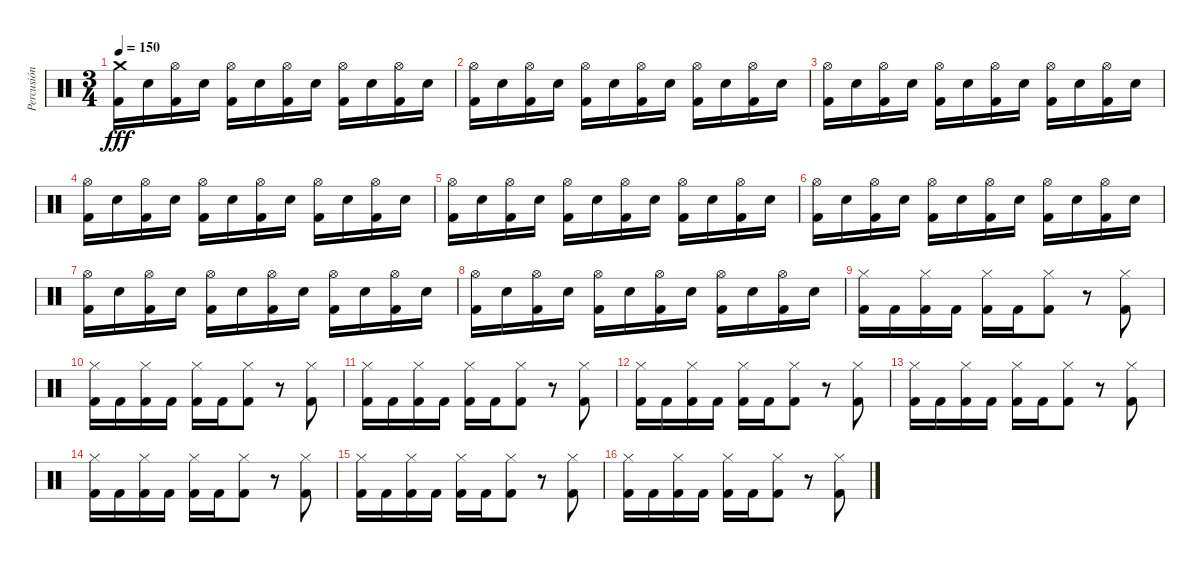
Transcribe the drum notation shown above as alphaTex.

\track ("Percusión" "Percusión") {instrument percussion}
\staff {score}
\articulation defaults
\ts (3 4)
\tempo 150
\clef neutral
\ks c
("Crash medium (hit)" "Kick (hit) 2").16{dy fff} "Snare (hit) 2".16 ("Hi-Hat (open)" "Kick (hit) 2").16 "Snare (hit) 2".16 ("Hi-Hat (open)" "Kick (hit) 2").16 "Snare (hit) 2".16 ("Hi-Hat (open)" "Kick (hit) 2").16 "Snare (hit) 2".16 ("Hi-Hat (open)" "Kick (hit) 2").16 "Snare (hit) 2".16 ("Hi-Hat (open)" "Kick (hit) 2").16 "Snare (hit) 2".16 |
("Hi-Hat (open)" "Kick (hit) 2").16 "Snare (hit) 2".16 ("Hi-Hat (open)" "Kick (hit) 2").16 "Snare (hit) 2".16 ("Hi-Hat (open)" "Kick (hit) 2").16 "Snare (hit) 2".16 ("Hi-Hat (open)" "Kick (hit) 2").16 "Snare (hit) 2".16 ("Hi-Hat (open)" "Kick (hit) 2").16 "Snare (hit) 2".16 ("Hi-Hat (open)" "Kick (hit) 2").16 "Snare (hit) 2".16 |
("Hi-Hat (open)" "Kick (hit) 2").16 "Snare (hit) 2".16 ("Hi-Hat (open)" "Kick (hit) 2").16 "Snare (hit) 2".16 ("Hi-Hat (open)" "Kick (hit) 2").16 "Snare (hit) 2".16 ("Hi-Hat (open)" "Kick (hit) 2").16 "Snare (hit) 2".16 ("Hi-Hat (open)" "Kick (hit) 2").16 "Snare (hit) 2".16 ("Hi-Hat (open)" "Kick (hit) 2").16 "Snare (hit) 2".16 |
("Hi-Hat (open)" "Kick (hit) 2").16 "Snare (hit) 2".16 ("Hi-Hat (open)" "Kick (hit) 2").16 "Snare (hit) 2".16 ("Hi-Hat (open)" "Kick (hit) 2").16 "Snare (hit) 2".16 ("Hi-Hat (open)" "Kick (hit) 2").16 "Snare (hit) 2".16 ("Hi-Hat (open)" "Kick (hit) 2").16 "Snare (hit) 2".16 ("Hi-Hat (open)" "Kick (hit) 2").16 "Snare (hit) 2".16 |
("Hi-Hat (open)" "Kick (hit) 2").16 "Snare (hit) 2".16 ("Hi-Hat (open)" "Kick (hit) 2").16 "Snare (hit) 2".16 ("Hi-Hat (open)" "Kick (hit) 2").16 "Snare (hit) 2".16 ("Hi-Hat (open)" "Kick (hit) 2").16 "Snare (hit) 2".16 ("Hi-Hat (open)" "Kick (hit) 2").16 "Snare (hit) 2".16 ("Hi-Hat (open)" "Kick (hit) 2").16 "Snare (hit) 2".16 |
("Hi-Hat (open)" "Kick (hit) 2").16 "Snare (hit) 2".16 ("Hi-Hat (open)" "Kick (hit) 2").16 "Snare (hit) 2".16 ("Hi-Hat (open)" "Kick (hit) 2").16 "Snare (hit) 2".16 ("Hi-Hat (open)" "Kick (hit) 2").16 "Snare (hit) 2".16 ("Hi-Hat (open)" "Kick (hit) 2").16 "Snare (hit) 2".16 ("Hi-Hat (open)" "Kick (hit) 2").16 "Snare (hit) 2".16 |
("Hi-Hat (open)" "Kick (hit) 2").16 "Snare (hit) 2".16 ("Hi-Hat (open)" "Kick (hit) 2").16 "Snare (hit) 2".16 ("Hi-Hat (open)" "Kick (hit) 2").16 "Snare (hit) 2".16 ("Hi-Hat (open)" "Kick (hit) 2").16 "Snare (hit) 2".16 ("Hi-Hat (open)" "Kick (hit) 2").16 "Snare (hit) 2".16 ("Hi-Hat (open)" "Kick (hit) 2").16 "Snare (hit) 2".16 |
("Hi-Hat (open)" "Kick (hit) 2").16 "Snare (hit) 2".16 ("Hi-Hat (open)" "Kick (hit) 2").16 "Snare (hit) 2".16 ("Hi-Hat (open)" "Kick (hit) 2").16 "Snare (hit) 2".16 ("Hi-Hat (open)" "Kick (hit) 2").16 "Snare (hit) 2".16 ("Hi-Hat (open)" "Kick (hit) 2").16 "Snare (hit) 2".16 ("Hi-Hat (open)" "Kick (hit) 2").16 "Snare (hit) 2".16 |
("Hi-Hat (closed)" "Kick (hit) 2").16 "Kick (hit) 2".16 ("Hi-Hat (closed)" "Kick (hit) 2").16 "Kick (hit) 2".16 ("Hi-Hat (closed)" "Kick (hit) 2").16 "Kick (hit) 2".16 ("Hi-Hat (closed)" "Kick (hit) 2").8 r.8 ("Hi-Hat (closed)" "Kick (hit) 2").8 |
("Hi-Hat (closed)" "Kick (hit) 2").16 "Kick (hit) 2".16 ("Hi-Hat (closed)" "Kick (hit) 2").16 "Kick (hit) 2".16 ("Hi-Hat (closed)" "Kick (hit) 2").16 "Kick (hit) 2".16 ("Hi-Hat (closed)" "Kick (hit) 2").8 r.8 ("Hi-Hat (closed)" "Kick (hit) 2").8 |
("Hi-Hat (closed)" "Kick (hit) 2").16 "Kick (hit) 2".16 ("Hi-Hat (closed)" "Kick (hit) 2").16 "Kick (hit) 2".16 ("Hi-Hat (closed)" "Kick (hit) 2").16 "Kick (hit) 2".16 ("Hi-Hat (closed)" "Kick (hit) 2").8 r.8 ("Hi-Hat (closed)" "Kick (hit) 2").8 |
("Hi-Hat (closed)" "Kick (hit) 2").16 "Kick (hit) 2".16 ("Hi-Hat (closed)" "Kick (hit) 2").16 "Kick (hit) 2".16 ("Hi-Hat (closed)" "Kick (hit) 2").16 "Kick (hit) 2".16 ("Hi-Hat (closed)" "Kick (hit) 2").8 r.8 ("Hi-Hat (closed)" "Kick (hit) 2").8 |
("Hi-Hat (closed)" "Kick (hit) 2").16 "Kick (hit) 2".16 ("Hi-Hat (closed)" "Kick (hit) 2").16 "Kick (hit) 2".16 ("Hi-Hat (closed)" "Kick (hit) 2").16 "Kick (hit) 2".16 ("Hi-Hat (closed)" "Kick (hit) 2").8 r.8 ("Hi-Hat (closed)" "Kick (hit) 2").8 |
("Hi-Hat (closed)" "Kick (hit) 2").16 "Kick (hit) 2".16 ("Hi-Hat (closed)" "Kick (hit) 2").16 "Kick (hit) 2".16 ("Hi-Hat (closed)" "Kick (hit) 2").16 "Kick (hit) 2".16 ("Hi-Hat (closed)" "Kick (hit) 2").8 r.8 ("Hi-Hat (closed)" "Kick (hit) 2").8 |
("Hi-Hat (closed)" "Kick (hit) 2").16 "Kick (hit) 2".16 ("Hi-Hat (closed)" "Kick (hit) 2").16 "Kick (hit) 2".16 ("Hi-Hat (closed)" "Kick (hit) 2").16 "Kick (hit) 2".16 ("Hi-Hat (closed)" "Kick (hit) 2").8 r.8 ("Hi-Hat (closed)" "Kick (hit) 2").8 |
("Hi-Hat (closed)" "Kick (hit) 2").16 "Kick (hit) 2".16 ("Hi-Hat (closed)" "Kick (hit) 2").16 "Kick (hit) 2".16 ("Hi-Hat (closed)" "Kick (hit) 2").16 "Kick (hit) 2".16 ("Hi-Hat (closed)" "Kick (hit) 2").8 r.8 ("Hi-Hat (closed)" "Kick (hit) 2").8
